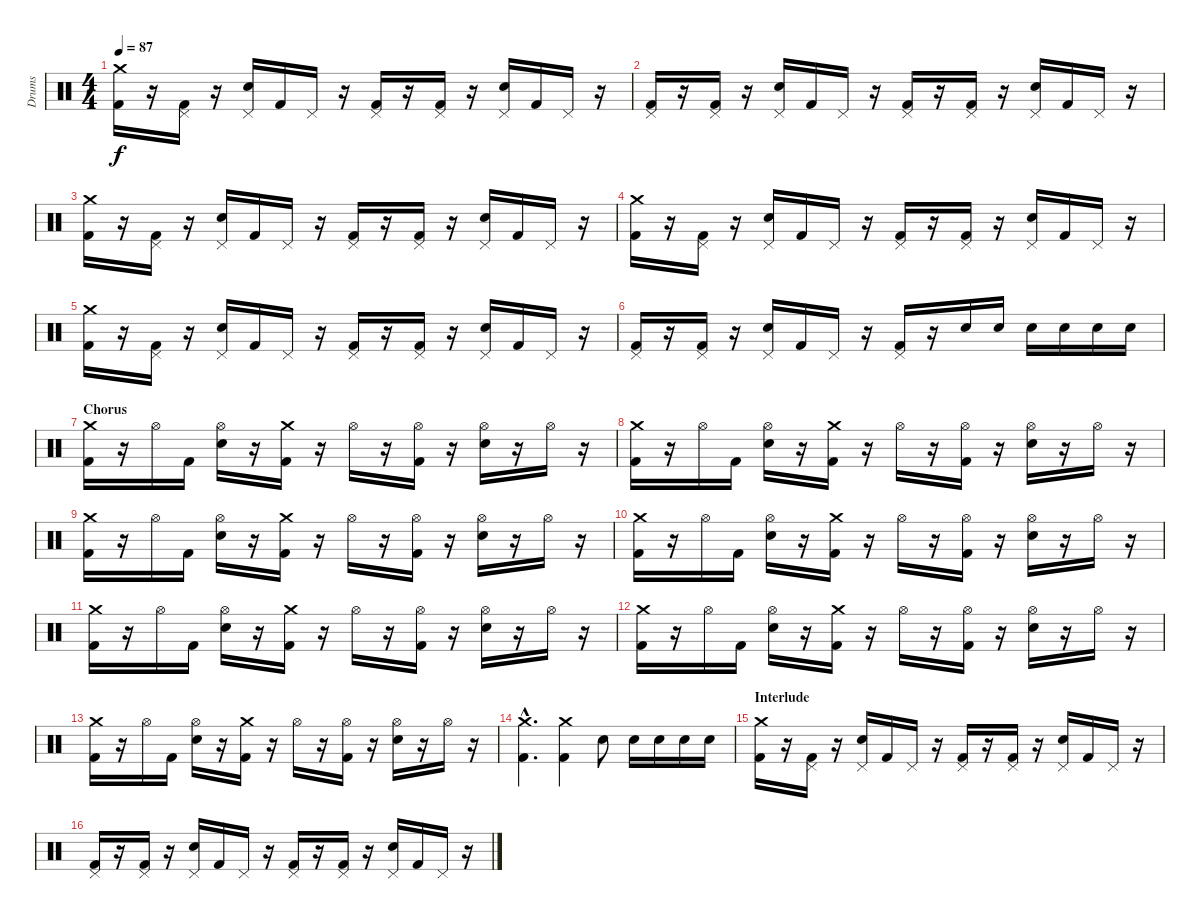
\track ("Drums" "Drums") {instrument percussion}
\staff {score}
\articulation defaults
\ts (4 4)
\tempo 87
\clef neutral
\ks c
("Crash medium (hit)" "Kick (hit) 2").16{dy f} r.16 ("Pedal Hi-Hat (hit)" "Kick (hit) 2").16 r.16 ("Pedal Hi-Hat (hit)" "Electric Snare (hit)").16 "Kick (hit) 2".16 "Pedal Hi-Hat (hit)".16 r.16 ("Pedal Hi-Hat (hit)" "Kick (hit) 2").16 r.16 ("Pedal Hi-Hat (hit)" "Kick (hit) 2").16 r.16 ("Pedal Hi-Hat (hit)" "Electric Snare (hit)").16 "Kick (hit) 2".16 "Pedal Hi-Hat (hit)".16 r.16 |
("Pedal Hi-Hat (hit)" "Kick (hit) 2").16 r.16 ("Pedal Hi-Hat (hit)" "Kick (hit) 2").16 r.16 ("Pedal Hi-Hat (hit)" "Electric Snare (hit)").16 "Kick (hit) 2".16 "Pedal Hi-Hat (hit)".16 r.16 ("Pedal Hi-Hat (hit)" "Kick (hit) 2").16 r.16 ("Pedal Hi-Hat (hit)" "Kick (hit) 2").16 r.16 ("Pedal Hi-Hat (hit)" "Electric Snare (hit)").16 "Kick (hit) 2".16 "Pedal Hi-Hat (hit)".16 r.16 |
("Crash medium (hit)" "Kick (hit) 2").16 r.16 ("Pedal Hi-Hat (hit)" "Kick (hit) 2").16 r.16 ("Pedal Hi-Hat (hit)" "Electric Snare (hit)").16 "Kick (hit) 2".16 "Pedal Hi-Hat (hit)".16 r.16 ("Pedal Hi-Hat (hit)" "Kick (hit) 2").16 r.16 ("Pedal Hi-Hat (hit)" "Kick (hit) 2").16 r.16 ("Pedal Hi-Hat (hit)" "Electric Snare (hit)").16 "Kick (hit) 2".16 "Pedal Hi-Hat (hit)".16 r.16 |
("Crash medium (hit)" "Kick (hit) 2").16 r.16 ("Pedal Hi-Hat (hit)" "Kick (hit) 2").16 r.16 ("Pedal Hi-Hat (hit)" "Electric Snare (hit)").16 "Kick (hit) 2".16 "Pedal Hi-Hat (hit)".16 r.16 ("Pedal Hi-Hat (hit)" "Kick (hit) 2").16 r.16 ("Pedal Hi-Hat (hit)" "Kick (hit) 2").16 r.16 ("Pedal Hi-Hat (hit)" "Electric Snare (hit)").16 "Kick (hit) 2".16 "Pedal Hi-Hat (hit)".16 r.16 |
("Crash medium (hit)" "Kick (hit) 2").16 r.16 ("Pedal Hi-Hat (hit)" "Kick (hit) 2").16 r.16 ("Pedal Hi-Hat (hit)" "Electric Snare (hit)").16 "Kick (hit) 2".16 "Pedal Hi-Hat (hit)".16 r.16 ("Pedal Hi-Hat (hit)" "Kick (hit) 2").16 r.16 ("Pedal Hi-Hat (hit)" "Kick (hit) 2").16 r.16 ("Pedal Hi-Hat (hit)" "Electric Snare (hit)").16 "Kick (hit) 2".16 "Pedal Hi-Hat (hit)".16 r.16 |
("Pedal Hi-Hat (hit)" "Kick (hit) 2").16 r.16 ("Pedal Hi-Hat (hit)" "Kick (hit) 2").16 r.16 ("Pedal Hi-Hat (hit)" "Electric Snare (hit)").16 "Kick (hit) 2".16 "Pedal Hi-Hat (hit)".16 r.16 ("Pedal Hi-Hat (hit)" "Kick (hit) 2").16 r.16 "Electric Snare (hit)".16 "Electric Snare (hit)".16 "Electric Snare (hit)".16 "Electric Snare (hit)".16 "Electric Snare (hit)".16 "Electric Snare (hit)".16 |
\section ("" "Chorus")
("Crash medium (hit)" "Kick (hit) 2").16 r.16 "Hi-Hat (open)".16 "Kick (hit) 2".16 ("Hi-Hat (open)" "Electric Snare (hit)").16 r.16 ("Crash medium (hit)" "Kick (hit) 2").16 r.16 "Hi-Hat (open)".16 r.16 ("Hi-Hat (open)" "Kick (hit) 2").16 r.16 ("Hi-Hat (open)" "Electric Snare (hit)").16 r.16 "Hi-Hat (open)".16 r.16 |
("Crash medium (hit)" "Kick (hit) 2").16 r.16 "Hi-Hat (open)".16 "Kick (hit) 2".16 ("Hi-Hat (open)" "Electric Snare (hit)").16 r.16 ("Crash medium (hit)" "Kick (hit) 2").16 r.16 "Hi-Hat (open)".16 r.16 ("Hi-Hat (open)" "Kick (hit) 2").16 r.16 ("Hi-Hat (open)" "Electric Snare (hit)").16 r.16 "Hi-Hat (open)".16 r.16 |
("Crash medium (hit)" "Kick (hit) 2").16 r.16 "Hi-Hat (open)".16 "Kick (hit) 2".16 ("Hi-Hat (open)" "Electric Snare (hit)").16 r.16 ("Crash medium (hit)" "Kick (hit) 2").16 r.16 "Hi-Hat (open)".16 r.16 ("Hi-Hat (open)" "Kick (hit) 2").16 r.16 ("Hi-Hat (open)" "Electric Snare (hit)").16 r.16 "Hi-Hat (open)".16 r.16 |
("Crash medium (hit)" "Kick (hit) 2").16 r.16 "Hi-Hat (open)".16 "Kick (hit) 2".16 ("Hi-Hat (open)" "Electric Snare (hit)").16 r.16 ("Crash medium (hit)" "Kick (hit) 2").16 r.16 "Hi-Hat (open)".16 r.16 ("Hi-Hat (open)" "Kick (hit) 2").16 r.16 ("Hi-Hat (open)" "Electric Snare (hit)").16 r.16 "Hi-Hat (open)".16 r.16 |
("Crash medium (hit)" "Kick (hit) 2").16 r.16 "Hi-Hat (open)".16 "Kick (hit) 2".16 ("Hi-Hat (open)" "Electric Snare (hit)").16 r.16 ("Crash medium (hit)" "Kick (hit) 2").16 r.16 "Hi-Hat (open)".16 r.16 ("Hi-Hat (open)" "Kick (hit) 2").16 r.16 ("Hi-Hat (open)" "Electric Snare (hit)").16 r.16 "Hi-Hat (open)".16 r.16 |
("Crash medium (hit)" "Kick (hit) 2").16 r.16 "Hi-Hat (open)".16 "Kick (hit) 2".16 ("Hi-Hat (open)" "Electric Snare (hit)").16 r.16 ("Crash medium (hit)" "Kick (hit) 2").16 r.16 "Hi-Hat (open)".16 r.16 ("Hi-Hat (open)" "Kick (hit) 2").16 r.16 ("Hi-Hat (open)" "Electric Snare (hit)").16 r.16 "Hi-Hat (open)".16 r.16 |
("Crash medium (hit)" "Kick (hit) 2").16 r.16 "Hi-Hat (open)".16 "Kick (hit) 2".16 ("Hi-Hat (open)" "Electric Snare (hit)").16 r.16 ("Crash medium (hit)" "Kick (hit) 2").16 r.16 "Hi-Hat (open)".16 r.16 ("Hi-Hat (open)" "Kick (hit) 2").16 r.16 ("Hi-Hat (open)" "Electric Snare (hit)").16 r.16 "Hi-Hat (open)".16 r.16 |
("Kick (hit) 2"{hac} "Crash medium (hit)"{hac}).4{d} ("Kick (hit) 2" "Crash medium (hit)").4 "Electric Snare (hit)".8 "Electric Snare (hit)".16 "Electric Snare (hit)".16 "Electric Snare (hit)".16 "Electric Snare (hit)".16 |
\section ("" "Interlude")
("Crash medium (hit)" "Kick (hit) 2").16 r.16 ("Pedal Hi-Hat (hit)" "Kick (hit) 2").16 r.16 ("Pedal Hi-Hat (hit)" "Electric Snare (hit)").16 "Kick (hit) 2".16 "Pedal Hi-Hat (hit)".16 r.16 ("Pedal Hi-Hat (hit)" "Kick (hit) 2").16 r.16 ("Pedal Hi-Hat (hit)" "Kick (hit) 2").16 r.16 ("Pedal Hi-Hat (hit)" "Electric Snare (hit)").16 "Kick (hit) 2".16 "Pedal Hi-Hat (hit)".16 r.16 |
("Pedal Hi-Hat (hit)" "Kick (hit) 2").16 r.16 ("Pedal Hi-Hat (hit)" "Kick (hit) 2").16 r.16 ("Pedal Hi-Hat (hit)" "Electric Snare (hit)").16 "Kick (hit) 2".16 "Pedal Hi-Hat (hit)".16 r.16 ("Pedal Hi-Hat (hit)" "Kick (hit) 2").16 r.16 ("Pedal Hi-Hat (hit)" "Kick (hit) 2").16 r.16 ("Pedal Hi-Hat (hit)" "Electric Snare (hit)").16 "Kick (hit) 2".16 "Pedal Hi-Hat (hit)".16 r.16
